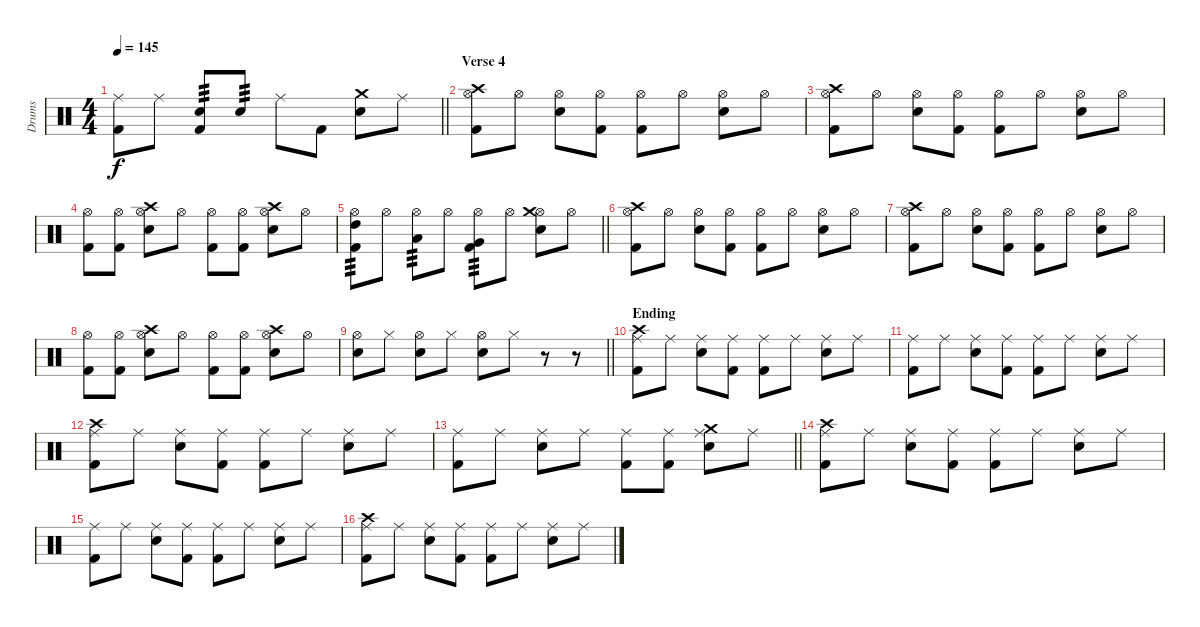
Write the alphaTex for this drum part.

\track ("Drums" "Drums") {instrument percussion}
\staff {score}
\articulation defaults
\ts (4 4)
\tempo 145
\clef neutral
\barLineRight lightlight
\ks c
("Kick (hit) 2" "Ride (middle)").8{dy f} "Ride (middle)".8 ("Kick (hit) 2" "Snare (hit) 2").8{tp 3} "Snare (hit) 2".8{tp 3} "Ride (middle)".8 "Kick (hit) 2".8 ("Snare (hit) 2" "Crash medium (hit)").8 "Ride (middle)".8 |
\section ("" "Verse 4")
("Kick (hit) 2" "Hi-Hat (open)" "Crash high (hit)").8 "Hi-Hat (open)".8 ("Snare (hit) 2" "Hi-Hat (open)").8 ("Kick (hit) 2" "Hi-Hat (open)").8 ("Kick (hit) 2" "Hi-Hat (open)").8 "Hi-Hat (open)".8 ("Snare (hit) 2" "Hi-Hat (open)").8 "Hi-Hat (open)".8 |
("Kick (hit) 2" "Hi-Hat (open)" "Crash high (hit)").8 "Hi-Hat (open)".8 ("Snare (hit) 2" "Hi-Hat (open)").8 ("Kick (hit) 2" "Hi-Hat (open)").8 ("Kick (hit) 2" "Hi-Hat (open)").8 "Hi-Hat (open)".8 ("Snare (hit) 2" "Hi-Hat (open)").8 "Hi-Hat (open)".8 |
("Kick (hit) 2" "Hi-Hat (open)").8 ("Kick (hit) 2" "Hi-Hat (open)").8 ("Snare (hit) 2" "Hi-Hat (open)" "Crash high (hit)").8 "Hi-Hat (open)".8 ("Kick (hit) 2" "Hi-Hat (open)").8 ("Kick (hit) 2" "Hi-Hat (open)").8 ("Snare (hit) 2" "Hi-Hat (open)" "Crash high (hit)").8 "Hi-Hat (open)".8 |
\barLineRight lightlight
("Kick (hit) 2" "Hi-Hat (open)" "High Tom (hit)").8{tp 3} "Hi-Hat (open)".8 ("Hi-Hat (open)" "Low Tom (hit)").8{tp 3} "Hi-Hat (open)".8 ("Kick (hit) 2" "Hi-Hat (open)" "Very Low Tom (hit)").8{tp 3} "Hi-Hat (open)".8 ("Snare (hit) 2" "Hi-Hat (open)" "Crash medium (hit)").8 "Hi-Hat (open)".8 |
("Kick (hit) 2" "Hi-Hat (open)" "Crash high (hit)").8 "Hi-Hat (open)".8 ("Snare (hit) 2" "Hi-Hat (open)").8 ("Kick (hit) 2" "Hi-Hat (open)").8 ("Kick (hit) 2" "Hi-Hat (open)").8 "Hi-Hat (open)".8 ("Snare (hit) 2" "Hi-Hat (open)").8 "Hi-Hat (open)".8 |
("Kick (hit) 2" "Hi-Hat (open)" "Crash high (hit)").8 "Hi-Hat (open)".8 ("Snare (hit) 2" "Hi-Hat (open)").8 ("Kick (hit) 2" "Hi-Hat (open)").8 ("Kick (hit) 2" "Hi-Hat (open)").8 "Hi-Hat (open)".8 ("Snare (hit) 2" "Hi-Hat (open)").8 "Hi-Hat (open)".8 |
("Kick (hit) 2" "Hi-Hat (open)").8 ("Kick (hit) 2" "Hi-Hat (open)").8 ("Snare (hit) 2" "Hi-Hat (open)" "Crash high (hit)").8 "Hi-Hat (open)".8 ("Kick (hit) 2" "Hi-Hat (open)").8 ("Kick (hit) 2" "Hi-Hat (open)").8 ("Snare (hit) 2" "Hi-Hat (open)" "Crash high (hit)").8 "Hi-Hat (open)".8 |
\barLineRight lightlight
("Snare (hit) 2" "Hi-Hat (open)").8 "Hi-Hat (closed)".8 ("Snare (hit) 2" "Hi-Hat (open)").8 "Hi-Hat (closed)".8 ("Snare (hit) 2" "Hi-Hat (open)").8 "Hi-Hat (closed)".8 r.8 r.8 |
\section ("" "Ending")
("Kick (hit) 2" "Ride (middle)" "Crash high (hit)").8 "Ride (middle)".8 ("Snare (hit) 2" "Ride (middle)").8 ("Kick (hit) 2" "Ride (middle)").8 ("Kick (hit) 2" "Ride (middle)").8 "Ride (middle)".8 ("Snare (hit) 2" "Ride (middle)").8 "Ride (middle)".8 |
("Kick (hit) 2" "Ride (middle)").8 "Ride (middle)".8 ("Snare (hit) 2" "Ride (middle)").8 ("Kick (hit) 2" "Ride (middle)").8 ("Kick (hit) 2" "Ride (middle)").8 "Ride (middle)".8 ("Snare (hit) 2" "Ride (middle)").8 "Ride (middle)".8 |
("Kick (hit) 2" "Ride (middle)" "Crash high (hit)").8 "Ride (middle)".8 ("Snare (hit) 2" "Ride (middle)").8 ("Kick (hit) 2" "Ride (middle)").8 ("Kick (hit) 2" "Ride (middle)").8 "Ride (middle)".8 ("Snare (hit) 2" "Ride (middle)").8 "Ride (middle)".8 |
\barLineRight lightlight
("Kick (hit) 2" "Ride (middle)").8 "Ride (middle)".8 ("Snare (hit) 2" "Ride (middle)").8 "Ride (middle)".8 ("Kick (hit) 2" "Ride (middle)").8 ("Kick (hit) 2" "Ride (middle)").8 ("Snare (hit) 2" "Ride (middle)" "Crash medium (hit)").8 "Ride (middle)".8 |
("Kick (hit) 2" "Ride (middle)" "Crash high (hit)").8 "Ride (middle)".8 ("Snare (hit) 2" "Ride (middle)").8 ("Kick (hit) 2" "Ride (middle)").8 ("Kick (hit) 2" "Ride (middle)").8 "Ride (middle)".8 ("Snare (hit) 2" "Ride (middle)").8 "Ride (middle)".8 |
("Kick (hit) 2" "Ride (middle)").8 "Ride (middle)".8 ("Snare (hit) 2" "Ride (middle)").8 ("Kick (hit) 2" "Ride (middle)").8 ("Kick (hit) 2" "Ride (middle)").8 "Ride (middle)".8 ("Snare (hit) 2" "Ride (middle)").8 "Ride (middle)".8 |
("Kick (hit) 2" "Ride (middle)" "Crash high (hit)").8 "Ride (middle)".8 ("Snare (hit) 2" "Ride (middle)").8 ("Kick (hit) 2" "Ride (middle)").8 ("Kick (hit) 2" "Ride (middle)").8 "Ride (middle)".8 ("Snare (hit) 2" "Ride (middle)").8 "Ride (middle)".8
